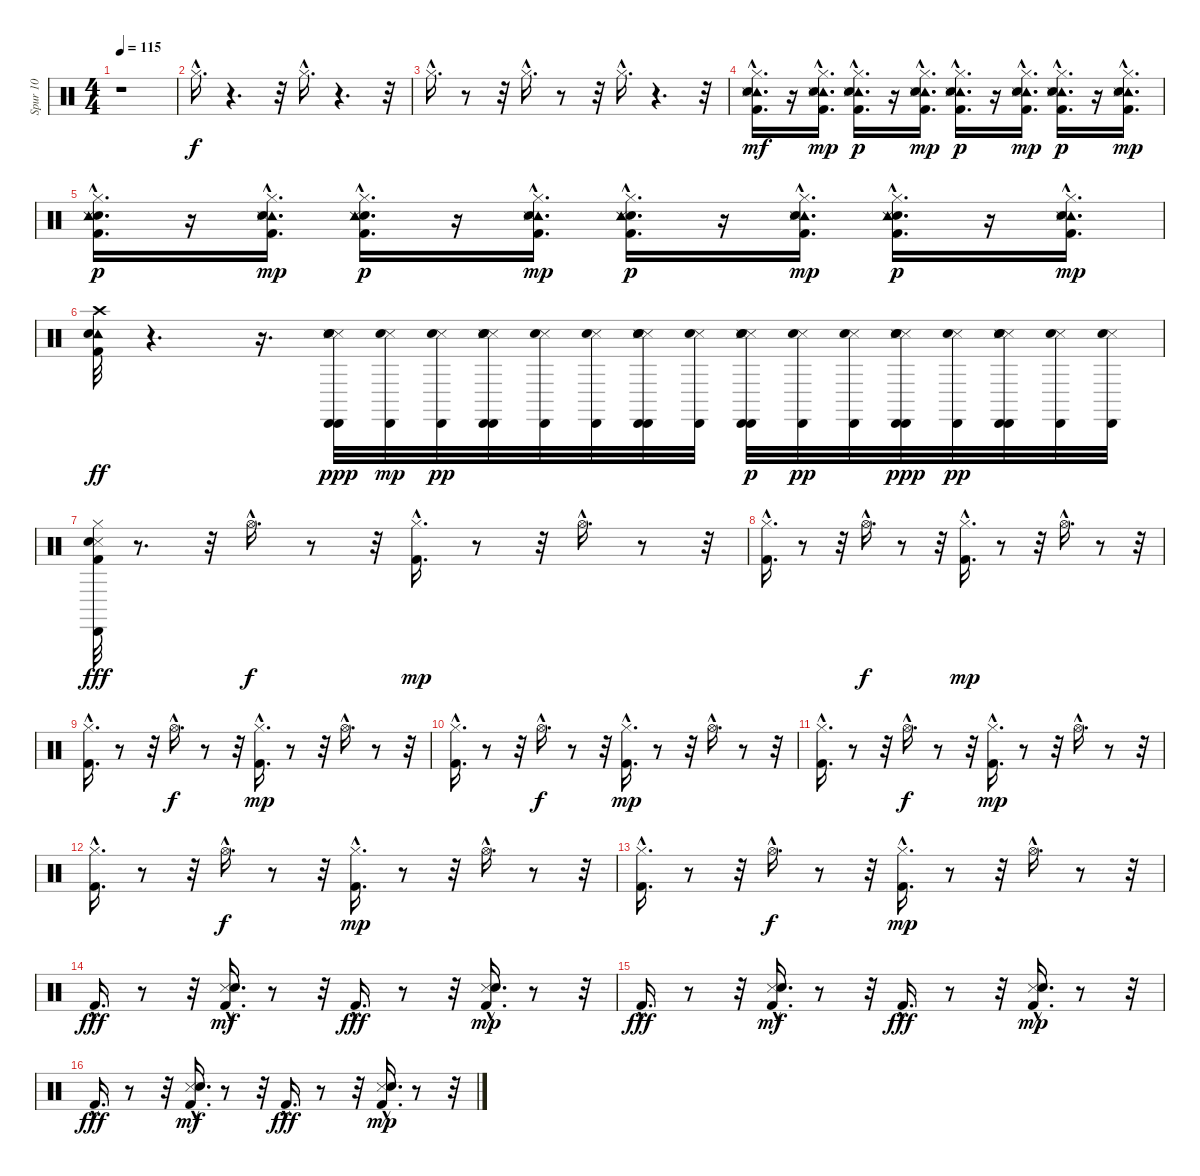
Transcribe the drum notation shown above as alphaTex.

\track ("Spur 10" "Spur 10") {instrument percussion}
\staff {score}
\articulation defaults
\ts (4 4)
\tempo 115
\clef neutral
\ks c
r.1{dy f} |
"Hi-Hat (closed)"{hac}.16{d} r.4{d} r.32 "Hi-Hat (closed)"{hac}.16{d} r.4{d} r.32 |
"Hi-Hat (closed)"{hac}.16{d} r.8 r.32 "Hi-Hat (closed)"{hac}.16{d} r.8 r.32 "Hi-Hat (closed)"{hac}.16{d} r.4{d} r.32 |
("Tambourine (hit)"{hac} "Kick (hit) 2"{hac} "Snare (hit) 2"{hac} "Hi-Hat (closed)"{hac} "Snare (side stick) 3"{hac}).16{d dy mf} r.16 ("Hi-Hat (closed)"{hac} "Tambourine (hit)"{hac} "Kick (hit) 2"{hac} "Snare (hit) 2"{hac} "Snare (side stick) 3"{hac}).16{d dy mp} ("Hi-Hat (closed)"{hac} "Tambourine (hit)"{hac} "Kick (hit) 2"{hac} "Snare (hit) 2"{hac} "Snare (side stick) 3"{hac}).16{d dy p} r.16 ("Hi-Hat (closed)"{hac} "Tambourine (hit)"{hac} "Kick (hit) 2"{hac} "Snare (hit) 2"{hac} "Snare (side stick) 3"{hac}).16{d dy mp} ("Hi-Hat (closed)"{hac} "Tambourine (hit)"{hac} "Kick (hit) 2"{hac} "Snare (hit) 2"{hac} "Snare (side stick) 3"{hac}).16{d dy p} r.16 ("Hi-Hat (closed)"{hac} "Tambourine (hit)"{hac} "Kick (hit) 2"{hac} "Snare (hit) 2"{hac} "Snare (side stick) 3"{hac}).16{d dy mp} ("Hi-Hat (closed)"{hac} "Tambourine (hit)"{hac} "Kick (hit) 2"{hac} "Snare (hit) 2"{hac} "Snare (side stick) 3"{hac}).16{d dy p} r.16 ("Hi-Hat (closed)"{hac} "Tambourine (hit)"{hac} "Kick (hit) 2"{hac} "Snare (hit) 2"{hac} "Snare (side stick) 3"{hac}).16{d dy mp} |
("Snare (hit) 2"{hac} "Hi-Hat (closed)"{hac} "Tambourine (hit)"{hac} "Kick (hit) 2"{hac} "Snare (side stick) 3"{hac}).16{d dy p} r.16 ("Hi-Hat (closed)"{hac} "Tambourine (hit)"{hac} "Kick (hit) 2"{hac} "Snare (hit) 2"{hac} "Snare (side stick) 3"{hac}).16{d dy mp} ("Snare (hit) 2"{hac} "Hi-Hat (closed)"{hac} "Tambourine (hit)"{hac} "Kick (hit) 2"{hac} "Snare (side stick) 3"{hac}).16{d dy p} r.16 ("Hi-Hat (closed)"{hac} "Tambourine (hit)"{hac} "Kick (hit) 2"{hac} "Snare (hit) 2"{hac} "Snare (side stick) 3"{hac}).16{d dy mp} ("Snare (hit) 2"{hac} "Hi-Hat (closed)"{hac} "Tambourine (hit)"{hac} "Kick (hit) 2"{hac} "Snare (side stick) 3"{hac}).16{d dy p} r.16 ("Hi-Hat (closed)"{hac} "Tambourine (hit)"{hac} "Kick (hit) 2"{hac} "Snare (hit) 2"{hac} "Snare (side stick) 3"{hac}).16{d dy mp} ("Snare (hit) 2"{hac} "Hi-Hat (closed)"{hac} "Tambourine (hit)"{hac} "Kick (hit) 2"{hac} "Snare (side stick) 3"{hac}).16{d dy p} r.16 ("Hi-Hat (closed)"{hac} "Tambourine (hit)"{hac} "Kick (hit) 2"{hac} "Snare (hit) 2"{hac} "Snare (side stick) 3"{hac}).16{d dy mp} |
("Kick (hit) 2" "Tambourine (hit)" "Snare (hit) 2" "Crash high (hit)").32{dy ff} r.4{d} r.16{d} ("Snare (side stick) 3" "Cabasa (hit)" "Snare (hit) 2" "Electric Snare (hit)" "Snare (side stick) 3" "Cabasa (hit)").32{dy ppp} ("Snare (side stick) 3" "Cabasa (hit)" "Electric Snare (hit)").32{dy mp} ("Snare (side stick) 3" "Cabasa (hit)" "Electric Snare (hit)").32{dy pp} ("Snare (side stick) 3" "Cabasa (hit)" "Electric Snare (hit)" "Snare (side stick) 3" "Cabasa (hit)" "Electric Snare (hit)").32 ("Snare (side stick) 3" "Cabasa (hit)" "Electric Snare (hit)").32 ("Snare (side stick) 3" "Cabasa (hit)" "Electric Snare (hit)").32 ("Snare (side stick) 3" "Cabasa (hit)" "Electric Snare (hit)" "Snare (side stick) 3" "Cabasa (hit)" "Electric Snare (hit)").32 ("Snare (side stick) 3" "Cabasa (hit)" "Electric Snare (hit)").32 ("Snare (side stick) 3" "Cabasa (hit)" "Electric Snare (hit)" "Cabasa (hit)" "Snare (side stick) 3" "Electric Snare (hit)").32{dy p} ("Cabasa (hit)" "Snare (side stick) 3" "Electric Snare (hit)").32{dy pp} ("Cabasa (hit)" "Snare (side stick) 3" "Electric Snare (hit)").32 ("Cabasa (hit)" "Snare (side stick) 3" "Electric Snare (hit)" "Cabasa (hit)" "Snare (side stick) 3" "Electric Snare (hit)").32{dy ppp} ("Cabasa (hit)" "Snare (side stick) 3" "Electric Snare (hit)").32{dy pp} ("Cabasa (hit)" "Snare (side stick) 3" "Electric Snare (hit)" "Cabasa (hit)" "Snare (side stick) 3" "Electric Snare (hit)").32 ("Cabasa (hit)" "Snare (side stick) 3" "Electric Snare (hit)").32 ("Cabasa (hit)" "Snare (side stick) 3" "Electric Snare (hit)").32 |
("Cabasa (hit)" "Snare (side stick) 3" "Electric Snare (hit)" "Hi-Hat (closed)" "Kick (hit) 2").32{dy fff} r.8{d} r.32 "Hi-Hat (open)"{hac}.16{d dy f} r.8 r.32 ("Kick (hit) 2"{hac} "Hi-Hat (closed)"{hac}).16{d dy mp} r.8 r.32 "Hi-Hat (open)"{hac}.16{d} r.8 r.32 |
("Kick (hit) 2"{hac} "Hi-Hat (closed)"{hac}).16{d} r.8 r.32 "Hi-Hat (open)"{hac}.16{d dy f} r.8 r.32 ("Kick (hit) 2"{hac} "Hi-Hat (closed)"{hac}).16{d dy mp} r.8 r.32 "Hi-Hat (open)"{hac}.16{d} r.8 r.32 |
("Kick (hit) 2"{hac} "Hi-Hat (closed)"{hac}).16{d} r.8 r.32 "Hi-Hat (open)"{hac}.16{d dy f} r.8 r.32 ("Kick (hit) 2"{hac} "Hi-Hat (closed)"{hac}).16{d dy mp} r.8 r.32 "Hi-Hat (open)"{hac}.16{d} r.8 r.32 |
("Kick (hit) 2"{hac} "Hi-Hat (closed)"{hac}).16{d} r.8 r.32 "Hi-Hat (open)"{hac}.16{d dy f} r.8 r.32 ("Kick (hit) 2"{hac} "Hi-Hat (closed)"{hac}).16{d dy mp} r.8 r.32 "Hi-Hat (open)"{hac}.16{d} r.8 r.32 |
("Kick (hit) 2"{hac} "Hi-Hat (closed)"{hac}).16{d} r.8 r.32 "Hi-Hat (open)"{hac}.16{d dy f} r.8 r.32 ("Kick (hit) 2"{hac} "Hi-Hat (closed)"{hac}).16{d dy mp} r.8 r.32 "Hi-Hat (open)"{hac}.16{d} r.8 r.32 |
("Kick (hit) 2"{hac} "Hi-Hat (closed)"{hac}).16{d} r.8 r.32 "Hi-Hat (open)"{hac}.16{d dy f} r.8 r.32 ("Kick (hit) 2"{hac} "Hi-Hat (closed)"{hac}).16{d dy mp} r.8 r.32 "Hi-Hat (open)"{hac}.16{d} r.8 r.32 |
("Kick (hit) 2"{hac} "Hi-Hat (closed)"{hac}).16{d} r.8 r.32 "Hi-Hat (open)"{hac}.16{d dy f} r.8 r.32 ("Kick (hit) 2"{hac} "Hi-Hat (closed)"{hac}).16{d dy mp} r.8 r.32 "Hi-Hat (open)"{hac}.16{d} r.8 r.32 |
"Kick (hit) 2"{hac}.16{d dy fff} r.8 r.32 ("Kick (hit) 2"{hac} "Snare (side stick) 3"{hac} "Snare (hit) 2"{hac}).16{d dy mf} r.8 r.32 "Kick (hit) 2"{hac}.16{d dy fff} r.8 r.32 ("Kick (hit) 2"{hac} "Snare (side stick) 3"{hac} "Snare (hit) 2"{hac}).16{d dy mp} r.8 r.32 |
"Kick (hit) 2"{hac}.16{d dy fff} r.8 r.32 ("Kick (hit) 2"{hac} "Snare (side stick) 3"{hac} "Snare (hit) 2"{hac}).16{d dy mf} r.8 r.32 "Kick (hit) 2"{hac}.16{d dy fff} r.8 r.32 ("Kick (hit) 2"{hac} "Snare (side stick) 3"{hac} "Snare (hit) 2"{hac}).16{d dy mp} r.8 r.32 |
"Kick (hit) 2"{hac}.16{d dy fff} r.8 r.32 ("Kick (hit) 2"{hac} "Snare (side stick) 3"{hac} "Snare (hit) 2"{hac}).16{d dy mf} r.8 r.32 "Kick (hit) 2"{hac}.16{d dy fff} r.8 r.32 ("Kick (hit) 2"{hac} "Snare (side stick) 3"{hac} "Snare (hit) 2"{hac}).16{d dy mp} r.8 r.32
